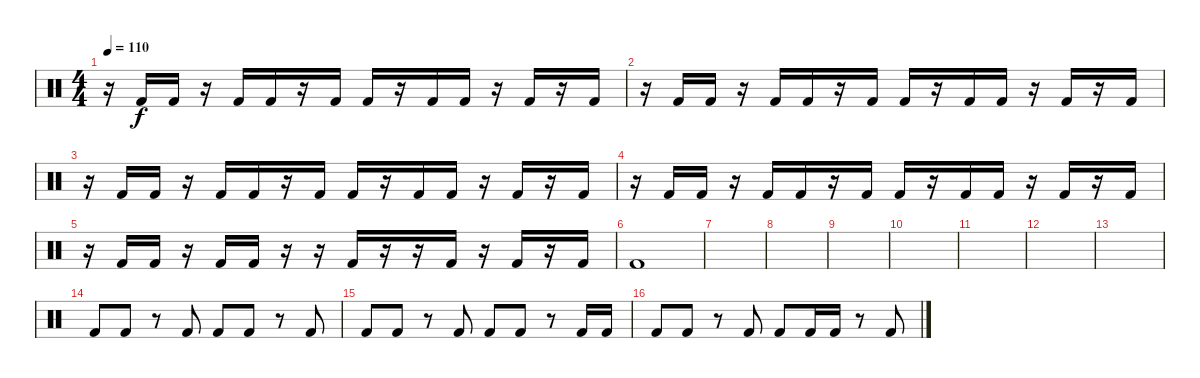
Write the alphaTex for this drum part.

\track "" {instrument percussion}
\staff {score}
\articulation defaults
\ts (4 4)
\tempo 110
\clef neutral
\ks c
r.16{dy f} "Kick (hit) 2".16 "Kick (hit) 2".16 r.16 "Kick (hit) 2".16 "Kick (hit) 2".16 r.16 "Kick (hit) 2".16 "Kick (hit) 2".16 r.16 "Kick (hit) 2".16 "Kick (hit) 2".16 r.16 "Kick (hit) 2".16 r.16 "Kick (hit) 2".16 |
r.16 "Kick (hit) 2".16 "Kick (hit) 2".16 r.16 "Kick (hit) 2".16 "Kick (hit) 2".16 r.16 "Kick (hit) 2".16 "Kick (hit) 2".16 r.16 "Kick (hit) 2".16 "Kick (hit) 2".16 r.16 "Kick (hit) 2".16 r.16 "Kick (hit) 2".16 |
r.16 "Kick (hit) 2".16 "Kick (hit) 2".16 r.16 "Kick (hit) 2".16 "Kick (hit) 2".16 r.16 "Kick (hit) 2".16 "Kick (hit) 2".16 r.16 "Kick (hit) 2".16 "Kick (hit) 2".16 r.16 "Kick (hit) 2".16 r.16 "Kick (hit) 2".16 |
r.16 "Kick (hit) 2".16 "Kick (hit) 2".16 r.16 "Kick (hit) 2".16 "Kick (hit) 2".16 r.16 "Kick (hit) 2".16 "Kick (hit) 2".16 r.16 "Kick (hit) 2".16 "Kick (hit) 2".16 r.16 "Kick (hit) 2".16 r.16 "Kick (hit) 2".16 |
r.16 "Kick (hit) 2".16 "Kick (hit) 2".16 r.16 "Kick (hit) 2".16 "Kick (hit) 2".16 r.16 r.16 "Kick (hit) 2".16 r.16 r.16 "Kick (hit) 2".16 r.16 "Kick (hit) 2".16 r.16 "Kick (hit) 2".16 |
"Kick (hit) 2".1 |
|
|
|
|
|
|
|
"Kick (hit) 2".8 "Kick (hit) 2".8 r.8 "Kick (hit) 2".8 "Kick (hit) 2".8 "Kick (hit) 2".8 r.8 "Kick (hit) 2".8 |
"Kick (hit) 2".8 "Kick (hit) 2".8 r.8 "Kick (hit) 2".8 "Kick (hit) 2".8 "Kick (hit) 2".8 r.8 "Kick (hit) 2".16 "Kick (hit) 2".16 |
"Kick (hit) 2".8 "Kick (hit) 2".8 r.8 "Kick (hit) 2".8 "Kick (hit) 2".8 "Kick (hit) 2".16 "Kick (hit) 2".16 r.8 "Kick (hit) 2".8
